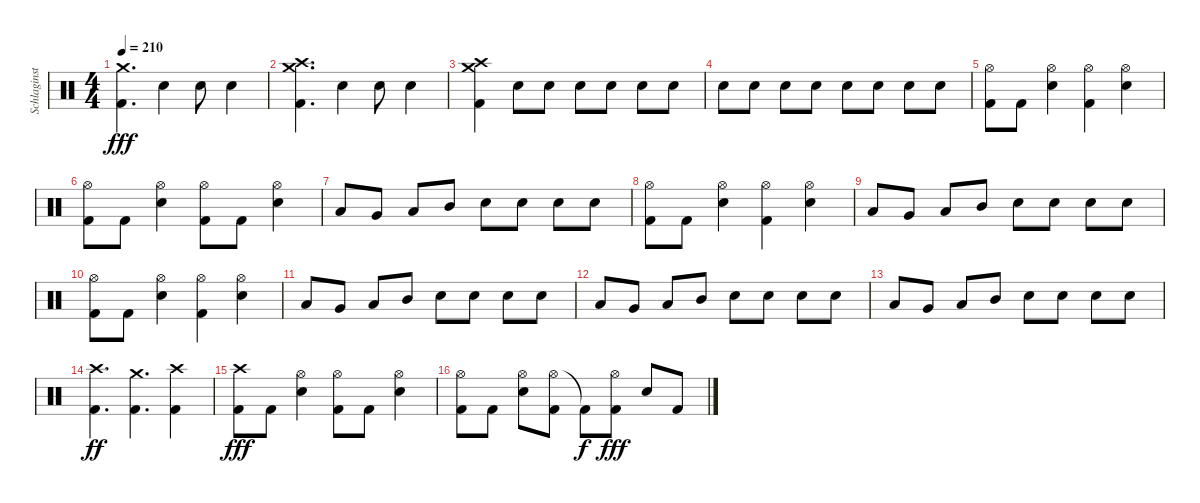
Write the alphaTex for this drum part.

\track ("Schlaginstrumente - Auswahl" "Schlaginst") {instrument percussion}
\staff {score}
\articulation defaults
\ts (4 4)
\tempo 210
\clef neutral
\ks c
("Crash medium (hit)" "Kick (hit) 2").4{d dy fff} "Electric Snare (hit)".4 "Electric Snare (hit)".8 "Electric Snare (hit)".4 |
("Crash high (hit)" "Crash medium (hit)" "Kick (hit) 2").4{d} "Electric Snare (hit)".4 "Electric Snare (hit)".8 "Electric Snare (hit)".4 |
("Crash medium (hit)" "Crash high (hit)" "Kick (hit) 2").4 "Electric Snare (hit)".8 "Electric Snare (hit)".8 "Electric Snare (hit)".8 "Electric Snare (hit)".8 "Electric Snare (hit)".8 "Electric Snare (hit)".8 |
"Electric Snare (hit)".8 "Electric Snare (hit)".8 "Electric Snare (hit)".8 "Electric Snare (hit)".8 "Electric Snare (hit)".8 "Electric Snare (hit)".8 "Electric Snare (hit)".8 "Electric Snare (hit)".8 |
("Hi-Hat (open)" "Kick (hit) 2").8 "Kick (hit) 2".8 ("Hi-Hat (open)" "Electric Snare (hit)").4 ("Hi-Hat (open)" "Kick (hit) 2").4 ("Hi-Hat (open)" "Electric Snare (hit)").4 |
("Hi-Hat (open)" "Kick (hit) 2").8 "Kick (hit) 2".8 ("Hi-Hat (open)" "Electric Snare (hit)").4 ("Hi-Hat (open)" "Kick (hit) 2").8 "Kick (hit) 2".8 ("Hi-Hat (open)" "Electric Snare (hit)").4 |
"Low Floor Tom (hit)".8 "Very Low Tom (hit)".8 "Low Tom (hit)".8 "Mid Tom (hit)".8 "Electric Snare (hit)".8 "Electric Snare (hit)".8 "Electric Snare (hit)".8 "Electric Snare (hit)".8 |
("Hi-Hat (open)" "Kick (hit) 2").8 "Kick (hit) 2".8 ("Hi-Hat (open)" "Electric Snare (hit)").4 ("Hi-Hat (open)" "Kick (hit) 2").4 ("Hi-Hat (open)" "Electric Snare (hit)").4 |
"Low Floor Tom (hit)".8 "Very Low Tom (hit)".8 "Low Tom (hit)".8 "Mid Tom (hit)".8 "Electric Snare (hit)".8 "Electric Snare (hit)".8 "Electric Snare (hit)".8 "Electric Snare (hit)".8 |
("Hi-Hat (open)" "Kick (hit) 2").8 "Kick (hit) 2".8 ("Hi-Hat (open)" "Electric Snare (hit)").4 ("Hi-Hat (open)" "Kick (hit) 2").4 ("Hi-Hat (open)" "Electric Snare (hit)").4 |
"Low Floor Tom (hit)".8 "Very Low Tom (hit)".8 "Low Tom (hit)".8 "Mid Tom (hit)".8 "Electric Snare (hit)".8 "Electric Snare (hit)".8 "Electric Snare (hit)".8 "Electric Snare (hit)".8 |
"Low Floor Tom (hit)".8 "Very Low Tom (hit)".8 "Low Tom (hit)".8 "Mid Tom (hit)".8 "Electric Snare (hit)".8 "Electric Snare (hit)".8 "Electric Snare (hit)".8 "Electric Snare (hit)".8 |
"Low Floor Tom (hit)".8 "Very Low Tom (hit)".8 "Low Tom (hit)".8 "Mid Tom (hit)".8 "Electric Snare (hit)".8 "Electric Snare (hit)".8 "Electric Snare (hit)".8 "Electric Snare (hit)".8 |
("Crash high (hit)" "Kick (hit) 2").4{d dy ff} ("Crash medium (hit)" "Kick (hit) 2").4{d} ("Crash high (hit)" "Kick (hit) 2").4 |
("Crash high (hit)" "Kick (hit) 2").8{dy fff} "Kick (hit) 2".8 ("Hi-Hat (open)" "Electric Snare (hit)").4 ("Hi-Hat (open)" "Kick (hit) 2").8 "Kick (hit) 2".8 ("Hi-Hat (open)" "Electric Snare (hit)").4 |
("Hi-Hat (open)" "Kick (hit) 2").8 "Kick (hit) 2".8 ("Hi-Hat (open)" "Electric Snare (hit)").8 ("Hi-Hat (open)" "Kick (hit) 2").8 "Kick (hit) 2"{t}.8{dy f} ("Hi-Hat (open)" "Kick (hit) 2").8{dy fff} "Electric Snare (hit)".8 "Kick (hit) 2".8
